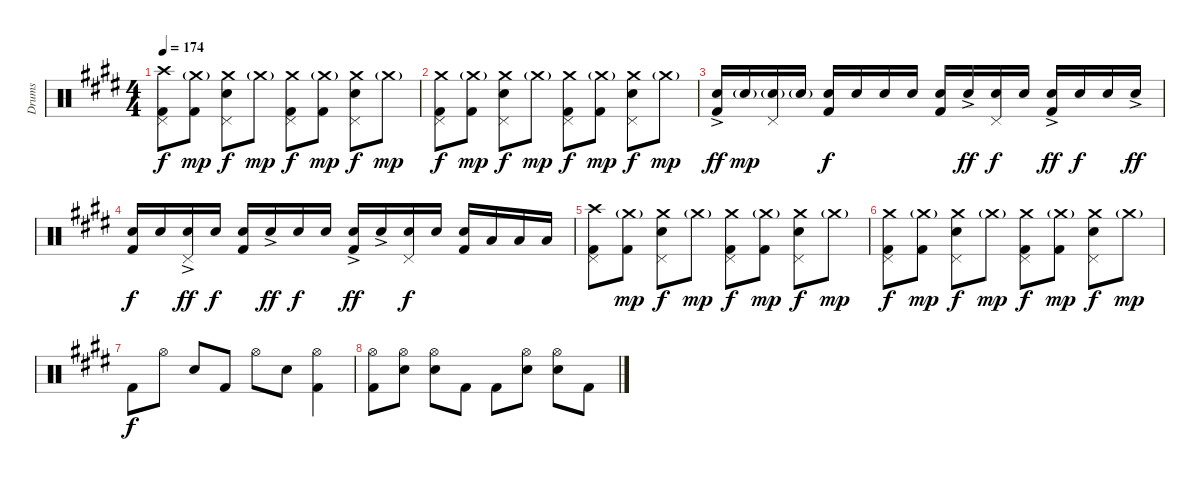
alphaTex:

\track ("Drums" "Drums") {instrument percussion bank 177}
\staff {score}
\articulation defaults
\ts (4 4)
\tempo 174
\clef neutral
\ks e
("Crash high (hit)" "Kick (hit) 2" "Pedal Hi-Hat (hit)").8{dy f} ("Crash medium (hit)"{g} "Kick (hit) 2").8{dy mp} ("Crash medium (hit)" "Electric Snare (hit)" "Pedal Hi-Hat (hit)").8{dy f} "Crash medium (hit)"{g}.8{dy mp} ("Crash medium (hit)" "Kick (hit) 2" "Pedal Hi-Hat (hit)").8{dy f} ("Crash medium (hit)"{g} "Kick (hit) 2").8{dy mp} ("Crash medium (hit)" "Electric Snare (hit)" "Pedal Hi-Hat (hit)").8{dy f} "Crash medium (hit)"{g}.8{dy mp} |
("Crash medium (hit)" "Kick (hit) 2" "Pedal Hi-Hat (hit)").8{dy f} ("Crash medium (hit)"{g} "Kick (hit) 2").8{dy mp} ("Crash medium (hit)" "Electric Snare (hit)" "Pedal Hi-Hat (hit)").8{dy f} "Crash medium (hit)"{g}.8{dy mp} ("Crash medium (hit)" "Kick (hit) 2" "Pedal Hi-Hat (hit)").8{dy f} ("Crash medium (hit)"{g} "Kick (hit) 2").8{dy mp} ("Crash medium (hit)" "Electric Snare (hit)" "Pedal Hi-Hat (hit)").8{dy f} "Crash medium (hit)"{g}.8{dy mp} |
("Electric Snare (hit)"{ac} "Kick (hit) 2").16{dy ff} "Electric Snare (hit)"{g}.16{dy mp} ("Electric Snare (hit)"{g} "Pedal Hi-Hat (hit)").16 "Electric Snare (hit)"{g}.16 ("Electric Snare (hit)" "Kick (hit) 2").16{dy f} "Electric Snare (hit)".16 "Electric Snare (hit)".16 "Electric Snare (hit)".16 ("Electric Snare (hit)" "Kick (hit) 2").16 "Electric Snare (hit)"{ac}.16{dy ff} ("Electric Snare (hit)" "Pedal Hi-Hat (hit)").16{dy f} "Electric Snare (hit)".16 ("Electric Snare (hit)"{ac} "Kick (hit) 2").16{dy ff} "Electric Snare (hit)".16{dy f} "Electric Snare (hit)".16 "Electric Snare (hit)"{ac}.16{dy ff} |
("Electric Snare (hit)" "Kick (hit) 2").16{dy f} "Electric Snare (hit)".16 ("Electric Snare (hit)"{ac} "Pedal Hi-Hat (hit)").16{dy ff} "Electric Snare (hit)".16{dy f} ("Electric Snare (hit)" "Kick (hit) 2").16 "Electric Snare (hit)"{ac}.16{dy ff} "Electric Snare (hit)".16{dy f} "Electric Snare (hit)".16 ("Electric Snare (hit)"{ac} "Kick (hit) 2").16{dy ff} "Electric Snare (hit)"{ac}.16 ("Electric Snare (hit)" "Pedal Hi-Hat (hit)").16{dy f} "Electric Snare (hit)".16 ("Electric Snare (hit)" "Kick (hit) 2").16 "Low Tom (hit)".16 "Low Tom (hit)".16 "Low Tom (hit)".16 |
("Crash high (hit)" "Kick (hit) 2" "Pedal Hi-Hat (hit)").8{volume 0} ("Crash medium (hit)"{g} "Kick (hit) 2").8{dy mp} ("Crash medium (hit)" "Electric Snare (hit)" "Pedal Hi-Hat (hit)").8{dy f} "Crash medium (hit)"{g}.8{dy mp} ("Crash medium (hit)" "Kick (hit) 2" "Pedal Hi-Hat (hit)").8{dy f} ("Crash medium (hit)"{g} "Kick (hit) 2").8{dy mp} ("Crash medium (hit)" "Electric Snare (hit)" "Pedal Hi-Hat (hit)").8{dy f} "Crash medium (hit)"{g}.8{dy mp} |
("Crash medium (hit)" "Kick (hit) 2" "Pedal Hi-Hat (hit)").8{dy f} ("Crash medium (hit)"{g} "Kick (hit) 2").8{dy mp} ("Crash medium (hit)" "Electric Snare (hit)" "Pedal Hi-Hat (hit)").8{dy f} "Crash medium (hit)"{g}.8{dy mp} ("Crash medium (hit)" "Kick (hit) 2" "Pedal Hi-Hat (hit)").8{dy f} ("Crash medium (hit)"{g} "Kick (hit) 2").8{dy mp} ("Crash medium (hit)" "Electric Snare (hit)" "Pedal Hi-Hat (hit)").8{dy f} "Crash medium (hit)"{g}.8{dy mp} |
"Kick (hit) 2".8{dy f} "Hi-Hat (open)".8 "Electric Snare (hit)".8 "Kick (hit) 2".8 "Hi-Hat (open)".8 "Electric Snare (hit)".8 ("Hi-Hat (open)" "Kick (hit) 2").4 |
("Hi-Hat (open)" "Kick (hit) 2").8 ("Hi-Hat (open)" "Electric Snare (hit)").8 ("Hi-Hat (open)" "Electric Snare (hit)").8 "Kick (hit) 2".8 "Kick (hit) 2".8 ("Hi-Hat (open)" "Electric Snare (hit)").8 ("Hi-Hat (open)" "Electric Snare (hit)").8 "Kick (hit) 2".8
